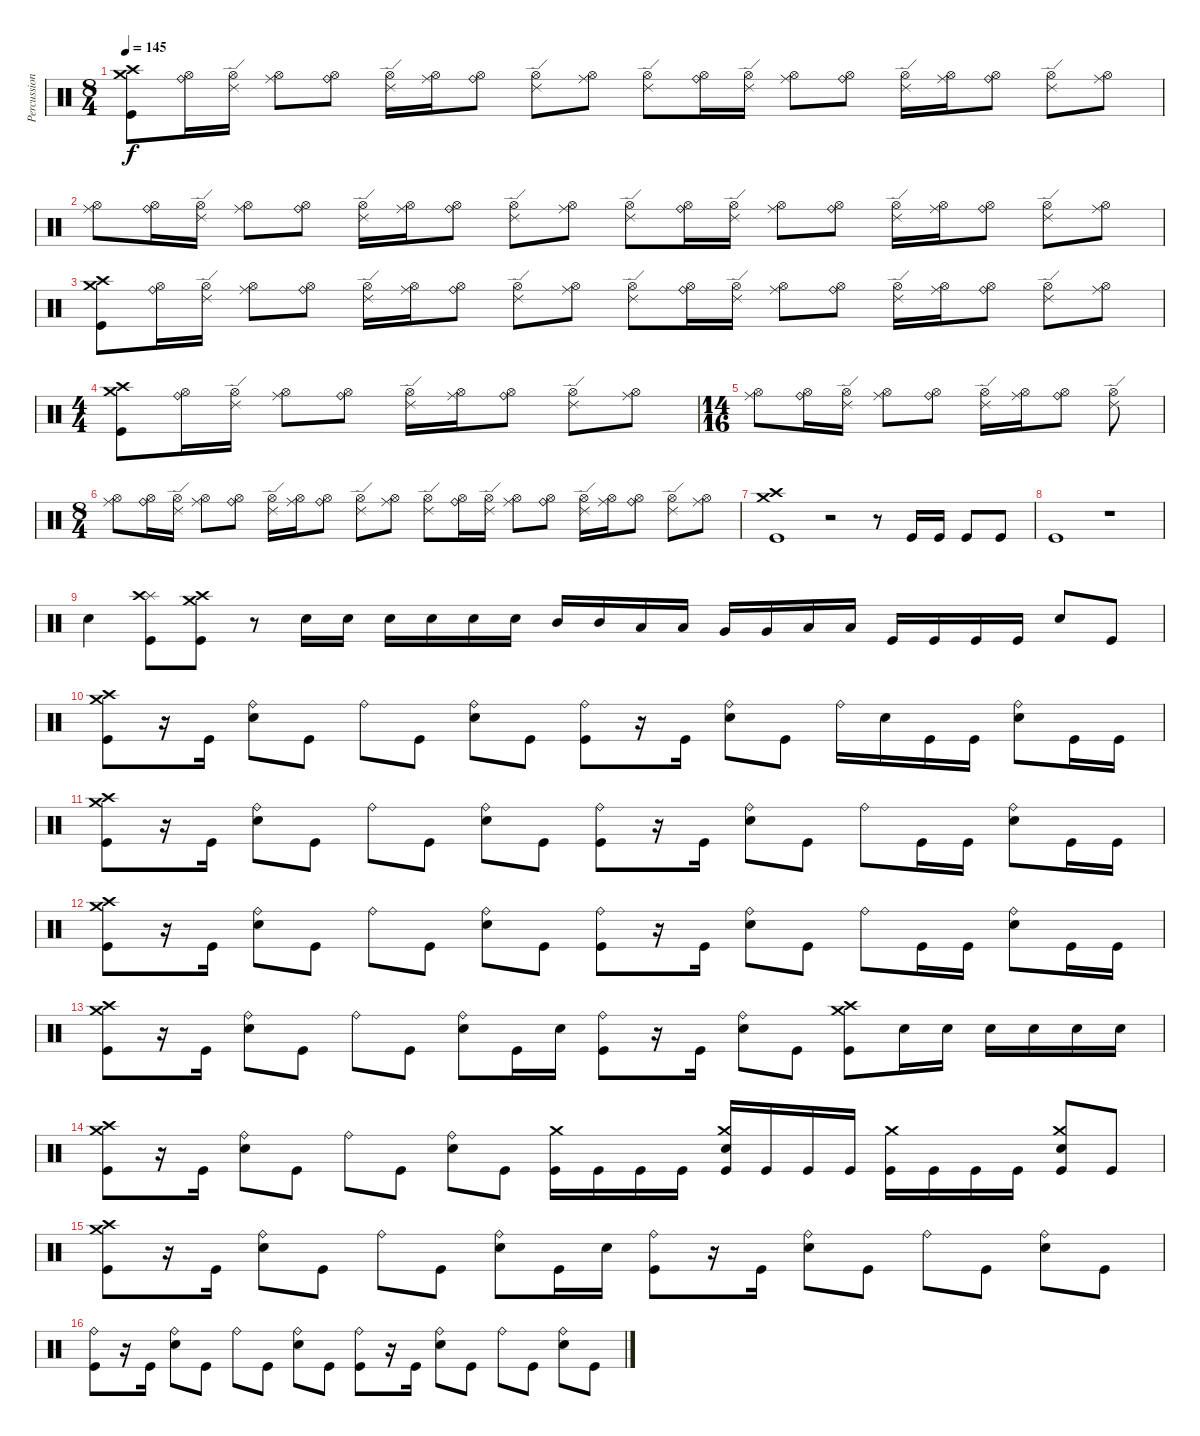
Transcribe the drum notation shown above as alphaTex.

\track ("Percussion" "Percussion") {instrument percussion}
\staff {score}
\articulation defaults
\ts (8 4)
\tempo 145
\clef neutral
\ks c
("Kick (hit)" "Crash medium (hit)" "Crash high (hit)").8{dy f} ("Hi-Hat (open)" "Ride (bell)").16 ("Hi-Hat (open)" "Ride (edge) 2").16 ("Hi-Hat (open)" "Ride (middle)").8 ("Hi-Hat (open)" "Ride (bell)").8 ("Hi-Hat (open)" "Ride (edge) 2").16 ("Hi-Hat (open)" "Ride (middle)").16 ("Hi-Hat (open)" "Ride (bell)").8 ("Hi-Hat (open)" "Ride (edge) 2").8 ("Hi-Hat (open)" "Ride (middle)").8 ("Hi-Hat (open)" "Ride (edge) 2").8 ("Hi-Hat (open)" "Ride (bell)").16 ("Hi-Hat (open)" "Ride (edge) 2").16 ("Hi-Hat (open)" "Ride (middle)").8 ("Hi-Hat (open)" "Ride (bell)").8 ("Hi-Hat (open)" "Ride (edge) 2").16 ("Hi-Hat (open)" "Ride (middle)").16 ("Hi-Hat (open)" "Ride (bell)").8 ("Hi-Hat (open)" "Ride (edge) 2").8 ("Hi-Hat (open)" "Ride (middle)").8 |
("Hi-Hat (open)" "Ride (middle)").8 ("Hi-Hat (open)" "Ride (bell)").16 ("Hi-Hat (open)" "Ride (edge) 2").16 ("Hi-Hat (open)" "Ride (middle)").8 ("Hi-Hat (open)" "Ride (bell)").8 ("Hi-Hat (open)" "Ride (edge) 2").16 ("Hi-Hat (open)" "Ride (middle)").16 ("Hi-Hat (open)" "Ride (bell)").8 ("Hi-Hat (open)" "Ride (edge) 2").8 ("Hi-Hat (open)" "Ride (middle)").8 ("Hi-Hat (open)" "Ride (edge) 2").8 ("Hi-Hat (open)" "Ride (bell)").16 ("Hi-Hat (open)" "Ride (edge) 2").16 ("Hi-Hat (open)" "Ride (middle)").8 ("Hi-Hat (open)" "Ride (bell)").8 ("Hi-Hat (open)" "Ride (edge) 2").16 ("Hi-Hat (open)" "Ride (middle)").16 ("Hi-Hat (open)" "Ride (bell)").8 ("Hi-Hat (open)" "Ride (edge) 2").8 ("Hi-Hat (open)" "Ride (middle)").8 |
("Kick (hit)" "Crash medium (hit)" "Crash high (hit)").8 ("Hi-Hat (open)" "Ride (bell)").16 ("Hi-Hat (open)" "Ride (edge) 2").16 ("Hi-Hat (open)" "Ride (middle)").8 ("Hi-Hat (open)" "Ride (bell)").8 ("Hi-Hat (open)" "Ride (edge) 2").16 ("Hi-Hat (open)" "Ride (middle)").16 ("Hi-Hat (open)" "Ride (bell)").8 ("Hi-Hat (open)" "Ride (edge) 2").8 ("Hi-Hat (open)" "Ride (middle)").8 ("Hi-Hat (open)" "Ride (edge) 2").8 ("Hi-Hat (open)" "Ride (bell)").16 ("Hi-Hat (open)" "Ride (edge) 2").16 ("Hi-Hat (open)" "Ride (middle)").8 ("Hi-Hat (open)" "Ride (bell)").8 ("Hi-Hat (open)" "Ride (edge) 2").16 ("Hi-Hat (open)" "Ride (middle)").16 ("Hi-Hat (open)" "Ride (bell)").8 ("Hi-Hat (open)" "Ride (edge) 2").8 ("Hi-Hat (open)" "Ride (middle)").8 |
\ts (4 4)
("Kick (hit)" "Crash high (hit)" "Crash medium (hit)").8 ("Hi-Hat (open)" "Ride (bell)").16 ("Hi-Hat (open)" "Ride (edge) 2").16 ("Hi-Hat (open)" "Ride (middle)").8 ("Hi-Hat (open)" "Ride (bell)").8 ("Hi-Hat (open)" "Ride (edge) 2").16 ("Hi-Hat (open)" "Ride (middle)").16 ("Hi-Hat (open)" "Ride (bell)").8 ("Hi-Hat (open)" "Ride (edge) 2").8 ("Hi-Hat (open)" "Ride (middle)").8 |
\ts (14 16)
("Hi-Hat (open)" "Ride (middle)").8 ("Hi-Hat (open)" "Ride (bell)").16 ("Hi-Hat (open)" "Ride (edge) 2").16 ("Hi-Hat (open)" "Ride (middle)").8 ("Hi-Hat (open)" "Ride (bell)").8 ("Hi-Hat (open)" "Ride (edge) 2").16 ("Hi-Hat (open)" "Ride (middle)").16 ("Hi-Hat (open)" "Ride (bell)").8 ("Hi-Hat (open)" "Ride (edge) 2").8 |
\ts (8 4)
("Hi-Hat (open)" "Ride (middle)").8 ("Hi-Hat (open)" "Ride (bell)").16 ("Hi-Hat (open)" "Ride (edge) 2").16 ("Hi-Hat (open)" "Ride (middle)").8 ("Hi-Hat (open)" "Ride (bell)").8 ("Hi-Hat (open)" "Ride (edge) 2").16 ("Hi-Hat (open)" "Ride (middle)").16 ("Hi-Hat (open)" "Ride (bell)").8 ("Hi-Hat (open)" "Ride (edge) 2").8 ("Hi-Hat (open)" "Ride (middle)").8 ("Hi-Hat (open)" "Ride (edge) 2").8 ("Hi-Hat (open)" "Ride (bell)").16 ("Hi-Hat (open)" "Ride (edge) 2").16 ("Hi-Hat (open)" "Ride (middle)").8 ("Hi-Hat (open)" "Ride (bell)").8 ("Hi-Hat (open)" "Ride (edge) 2").16 ("Hi-Hat (open)" "Ride (middle)").16 ("Hi-Hat (open)" "Ride (bell)").8 ("Hi-Hat (open)" "Ride (edge) 2").8 ("Hi-Hat (open)" "Ride (middle)").8 |
("Kick (hit)" "Crash medium (hit)" "Crash high (hit)").1 r.2 r.8 "Kick (hit)".16 "Kick (hit)".16 "Kick (hit)".8 "Kick (hit)".8 |
"Kick (hit)".1 r.1 |
"Electric Snare (hit)".4 ("Kick (hit)" "Splash (hit)" "Crash high (hit)").8 ("Kick (hit)" "Crash medium (hit)" "Crash high (hit)").8 r.8 "Electric Snare (hit)".16 "Electric Snare (hit)".16 "Electric Snare (hit)".16 "Electric Snare (hit)".16 "Electric Snare (hit)".16 "Electric Snare (hit)".16 "Mid Tom (hit)".16 "Mid Tom (hit)".16 "Low Tom (hit)".16 "Low Tom (hit)".16 "Very Low Tom (hit)".16 "Very Low Tom (hit)".16 "Low Floor Tom (hit)".16 "Low Floor Tom (hit)".16 "Kick (hit)".16 "Kick (hit)".16 "Kick (hit)".16 "Kick (hit)".16 "Electric Snare (hit)".8 "Kick (hit)".8 |
("Kick (hit)" "Crash high (hit)" "Crash medium (hit)").8 r.16 "Kick (hit)".16 ("Electric Snare (hit)" "Ride (bell)").8 "Kick (hit)".8 "Ride (bell)".8 "Kick (hit)".8 ("Electric Snare (hit)" "Ride (bell)").8 "Kick (hit)".8 ("Kick (hit)" "Ride (bell)").8 r.16 "Kick (hit)".16 ("Electric Snare (hit)" "Ride (bell)").8 "Kick (hit)".8 "Ride (bell)".16 "Electric Snare (hit)".16 "Kick (hit)".16 "Kick (hit)".16 ("Electric Snare (hit)" "Ride (bell)").8 "Kick (hit)".16 "Kick (hit)".16 |
("Kick (hit)" "Crash high (hit)" "Crash medium (hit)").8 r.16 "Kick (hit)".16 ("Electric Snare (hit)" "Ride (bell)").8 "Kick (hit)".8 "Ride (bell)".8 "Kick (hit)".8 ("Electric Snare (hit)" "Ride (bell)").8 "Kick (hit)".8 ("Kick (hit)" "Ride (bell)").8 r.16 "Kick (hit)".16 ("Electric Snare (hit)" "Ride (bell)").8 "Kick (hit)".8 "Ride (bell)".8 "Kick (hit)".16 "Kick (hit)".16 ("Electric Snare (hit)" "Ride (bell)").8 "Kick (hit)".16 "Kick (hit)".16 |
("Kick (hit)" "Crash high (hit)" "Crash medium (hit)").8 r.16 "Kick (hit)".16 ("Electric Snare (hit)" "Ride (bell)").8 "Kick (hit)".8 "Ride (bell)".8 "Kick (hit)".8 ("Electric Snare (hit)" "Ride (bell)").8 "Kick (hit)".8 ("Kick (hit)" "Ride (bell)").8 r.16 "Kick (hit)".16 ("Electric Snare (hit)" "Ride (bell)").8 "Kick (hit)".8 "Ride (bell)".8 "Kick (hit)".16 "Kick (hit)".16 ("Electric Snare (hit)" "Ride (bell)").8 "Kick (hit)".16 "Kick (hit)".16 |
("Kick (hit)" "Crash high (hit)" "Crash medium (hit)").8 r.16 "Kick (hit)".16 ("Electric Snare (hit)" "Ride (bell)").8 "Kick (hit)".8 "Ride (bell)".8 "Kick (hit)".8 ("Electric Snare (hit)" "Ride (bell)").8 "Kick (hit)".16 "Electric Snare (hit)".16 ("Kick (hit)" "Ride (bell)").8 r.16 "Kick (hit)".16 ("Electric Snare (hit)" "Ride (bell)").8 "Kick (hit)".8 ("Kick (hit)" "Crash medium (hit)" "Crash high (hit)").8 "Electric Snare (hit)".16 "Electric Snare (hit)".16 "Electric Snare (hit)".16 "Electric Snare (hit)".16 "Electric Snare (hit)".16 "Electric Snare (hit)".16 |
("Kick (hit)" "Crash high (hit)" "Crash medium (hit)").8 r.16 "Kick (hit)".16 ("Electric Snare (hit)" "Ride (bell)").8 "Kick (hit)".8 "Ride (bell)".8 "Kick (hit)".8 ("Electric Snare (hit)" "Ride (bell)").8 "Kick (hit)".8 ("Kick (hit)" "Crash medium (hit)").16 "Kick (hit)".16 "Kick (hit)".16 "Kick (hit)".16 ("Kick (hit)" "Crash medium (hit)" "Electric Snare (hit)").16 "Kick (hit)".16 "Kick (hit)".16 "Kick (hit)".16 ("Kick (hit)" "Crash medium (hit)").16 "Kick (hit)".16 "Kick (hit)".16 "Kick (hit)".16 ("Kick (hit)" "Crash medium (hit)" "Electric Snare (hit)").8 "Kick (hit)".8 |
("Kick (hit)" "Crash high (hit)" "Crash medium (hit)").8 r.16 "Kick (hit)".16 ("Electric Snare (hit)" "Ride (bell)").8 "Kick (hit)".8 "Ride (bell)".8 "Kick (hit)".8 ("Electric Snare (hit)" "Ride (bell)").8 "Kick (hit)".16 "Electric Snare (hit)".16 ("Kick (hit)" "Ride (bell)").8 r.16 "Kick (hit)".16 ("Electric Snare (hit)" "Ride (bell)").8 "Kick (hit)".8 "Ride (bell)".8 "Kick (hit)".8 ("Electric Snare (hit)" "Ride (bell)").8 "Kick (hit)".8 |
("Kick (hit)" "Ride (bell)").8 r.16 "Kick (hit)".16 ("Electric Snare (hit)" "Ride (bell)").8 "Kick (hit)".8 "Ride (bell)".8 "Kick (hit)".8 ("Electric Snare (hit)" "Ride (bell)").8 "Kick (hit)".8 ("Kick (hit)" "Ride (bell)").8 r.16 "Kick (hit)".16 ("Electric Snare (hit)" "Ride (bell)").8 "Kick (hit)".8 "Ride (bell)".8 "Kick (hit)".8 ("Electric Snare (hit)" "Ride (bell)").8 "Kick (hit)".8
